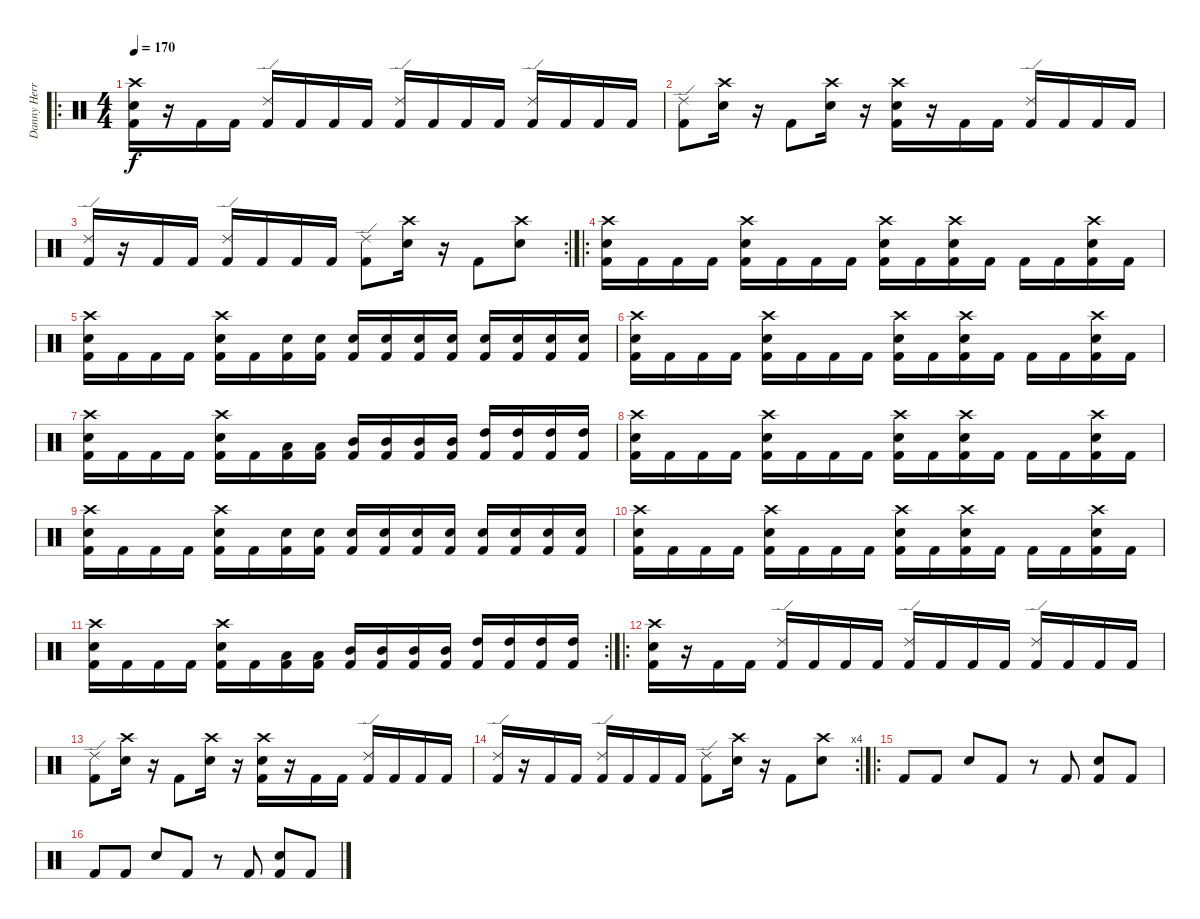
\track ("Danny Herrera" "Danny Herr") {instrument percussion}
\staff {score}
\articulation defaults
\ro
\ts (4 4)
\tempo 170
\clef neutral
\ks c
("Crash high (hit)" "Electric Snare (hit)" "Kick (hit) 2").16{dy f} r.16 "Kick (hit) 2".16 "Kick (hit) 2".16 ("Ride (edge) 2" "Kick (hit) 2").16 "Kick (hit) 2".16 "Kick (hit) 2".16 "Kick (hit) 2".16 ("Ride (edge) 2" "Kick (hit) 2").16 "Kick (hit) 2".16 "Kick (hit) 2".16 "Kick (hit) 2".16 ("Ride (edge) 2" "Kick (hit) 2").16 "Kick (hit) 2".16 "Kick (hit) 2".16 "Kick (hit) 2".16 |
("Ride (edge) 2" "Kick (hit) 2").8 ("Crash high (hit)" "Electric Snare (hit)").16 r.16 "Kick (hit) 2".8 ("Crash high (hit)" "Electric Snare (hit)").16 r.16 ("Crash high (hit)" "Electric Snare (hit)" "Kick (hit) 2").16 r.16 "Kick (hit) 2".16 "Kick (hit) 2".16 ("Ride (edge) 2" "Kick (hit) 2").16 "Kick (hit) 2".16 "Kick (hit) 2".16 "Kick (hit) 2".16 |
\rc 2
("Ride (edge) 2" "Kick (hit) 2").16 r.16 "Kick (hit) 2".16 "Kick (hit) 2".16 ("Ride (edge) 2" "Kick (hit) 2").16 "Kick (hit) 2".16 "Kick (hit) 2".16 "Kick (hit) 2".16 ("Ride (edge) 2" "Kick (hit) 2").8 ("Crash high (hit)" "Electric Snare (hit)").16 r.16 "Kick (hit) 2".8 ("Crash high (hit)" "Electric Snare (hit)").8 |
\ro
("Crash high (hit)" "Electric Snare (hit)" "Kick (hit) 2").16 "Kick (hit) 2".16 "Kick (hit) 2".16 "Kick (hit) 2".16 ("Crash high (hit)" "Electric Snare (hit)" "Kick (hit) 2").16 "Kick (hit) 2".16 "Kick (hit) 2".16 "Kick (hit) 2".16 ("Crash high (hit)" "Electric Snare (hit)" "Kick (hit) 2").16 "Kick (hit) 2".16 ("Crash high (hit)" "Electric Snare (hit)" "Kick (hit) 2").16 "Kick (hit) 2".16 "Kick (hit) 2".16 "Kick (hit) 2".16 ("Crash high (hit)" "Electric Snare (hit)" "Kick (hit) 2").16 "Kick (hit) 2".16 |
("Crash high (hit)" "Electric Snare (hit)" "Kick (hit) 2").16 "Kick (hit) 2".16 "Kick (hit) 2".16 "Kick (hit) 2".16 ("Crash high (hit)" "Electric Snare (hit)" "Kick (hit) 2").16 "Kick (hit) 2".16 ("Electric Snare (hit)" "Kick (hit) 2").16 ("Electric Snare (hit)" "Kick (hit) 2").16 ("Snare (hit) 2" "Kick (hit) 2").16 ("Snare (hit) 2" "Kick (hit) 2").16 ("Snare (hit) 2" "Kick (hit) 2").16 ("Snare (hit) 2" "Kick (hit) 2").16 ("Electric Snare (hit)" "Kick (hit) 2").16 ("Electric Snare (hit)" "Kick (hit) 2").16 ("Electric Snare (hit)" "Kick (hit) 2").16 ("Electric Snare (hit)" "Kick (hit) 2").16 |
("Crash high (hit)" "Electric Snare (hit)" "Kick (hit) 2").16 "Kick (hit) 2".16 "Kick (hit) 2".16 "Kick (hit) 2".16 ("Crash high (hit)" "Electric Snare (hit)" "Kick (hit) 2").16 "Kick (hit) 2".16 "Kick (hit) 2".16 "Kick (hit) 2".16 ("Crash high (hit)" "Electric Snare (hit)" "Kick (hit) 2").16 "Kick (hit) 2".16 ("Crash high (hit)" "Electric Snare (hit)" "Kick (hit) 2").16 "Kick (hit) 2".16 "Kick (hit) 2".16 "Kick (hit) 2".16 ("Crash high (hit)" "Electric Snare (hit)" "Kick (hit) 2").16 "Kick (hit) 2".16 |
("Crash high (hit)" "Electric Snare (hit)" "Kick (hit) 2").16 "Kick (hit) 2".16 "Kick (hit) 2".16 "Kick (hit) 2".16 ("Crash high (hit)" "Electric Snare (hit)" "Kick (hit) 2").16 "Kick (hit) 2".16 ("Low Tom (hit)" "Kick (hit) 2").16 ("Low Tom (hit)" "Kick (hit) 2").16 ("Mid Tom (hit)" "Kick (hit) 2").16 ("Mid Tom (hit)" "Kick (hit) 2").16 ("Mid Tom (hit)" "Kick (hit) 2").16 ("Mid Tom (hit)" "Kick (hit) 2").16 ("High Tom (hit)" "Kick (hit) 2").16 ("High Tom (hit)" "Kick (hit) 2").16 ("High Tom (hit)" "Kick (hit) 2").16 ("High Tom (hit)" "Kick (hit) 2").16 |
("Crash high (hit)" "Electric Snare (hit)" "Kick (hit) 2").16 "Kick (hit) 2".16 "Kick (hit) 2".16 "Kick (hit) 2".16 ("Crash high (hit)" "Electric Snare (hit)" "Kick (hit) 2").16 "Kick (hit) 2".16 "Kick (hit) 2".16 "Kick (hit) 2".16 ("Crash high (hit)" "Electric Snare (hit)" "Kick (hit) 2").16 "Kick (hit) 2".16 ("Crash high (hit)" "Electric Snare (hit)" "Kick (hit) 2").16 "Kick (hit) 2".16 "Kick (hit) 2".16 "Kick (hit) 2".16 ("Crash high (hit)" "Electric Snare (hit)" "Kick (hit) 2").16 "Kick (hit) 2".16 |
("Crash high (hit)" "Electric Snare (hit)" "Kick (hit) 2").16 "Kick (hit) 2".16 "Kick (hit) 2".16 "Kick (hit) 2".16 ("Crash high (hit)" "Electric Snare (hit)" "Kick (hit) 2").16 "Kick (hit) 2".16 ("Electric Snare (hit)" "Kick (hit) 2").16 ("Electric Snare (hit)" "Kick (hit) 2").16 ("Snare (hit) 2" "Kick (hit) 2").16 ("Snare (hit) 2" "Kick (hit) 2").16 ("Snare (hit) 2" "Kick (hit) 2").16 ("Snare (hit) 2" "Kick (hit) 2").16 ("Electric Snare (hit)" "Kick (hit) 2").16 ("Electric Snare (hit)" "Kick (hit) 2").16 ("Electric Snare (hit)" "Kick (hit) 2").16 ("Electric Snare (hit)" "Kick (hit) 2").16 |
("Crash high (hit)" "Electric Snare (hit)" "Kick (hit) 2").16 "Kick (hit) 2".16 "Kick (hit) 2".16 "Kick (hit) 2".16 ("Crash high (hit)" "Electric Snare (hit)" "Kick (hit) 2").16 "Kick (hit) 2".16 "Kick (hit) 2".16 "Kick (hit) 2".16 ("Crash high (hit)" "Electric Snare (hit)" "Kick (hit) 2").16 "Kick (hit) 2".16 ("Crash high (hit)" "Electric Snare (hit)" "Kick (hit) 2").16 "Kick (hit) 2".16 "Kick (hit) 2".16 "Kick (hit) 2".16 ("Crash high (hit)" "Electric Snare (hit)" "Kick (hit) 2").16 "Kick (hit) 2".16 |
\rc 2
("Crash high (hit)" "Electric Snare (hit)" "Kick (hit) 2").16 "Kick (hit) 2".16 "Kick (hit) 2".16 "Kick (hit) 2".16 ("Crash high (hit)" "Electric Snare (hit)" "Kick (hit) 2").16 "Kick (hit) 2".16 ("Low Tom (hit)" "Kick (hit) 2").16 ("Low Tom (hit)" "Kick (hit) 2").16 ("Mid Tom (hit)" "Kick (hit) 2").16 ("Mid Tom (hit)" "Kick (hit) 2").16 ("Mid Tom (hit)" "Kick (hit) 2").16 ("Mid Tom (hit)" "Kick (hit) 2").16 ("High Tom (hit)" "Kick (hit) 2").16 ("High Tom (hit)" "Kick (hit) 2").16 ("High Tom (hit)" "Kick (hit) 2").16 ("High Tom (hit)" "Kick (hit) 2").16 |
\ro
("Crash high (hit)" "Electric Snare (hit)" "Kick (hit) 2").16 r.16 "Kick (hit) 2".16 "Kick (hit) 2".16 ("Ride (edge) 2" "Kick (hit) 2").16 "Kick (hit) 2".16 "Kick (hit) 2".16 "Kick (hit) 2".16 ("Ride (edge) 2" "Kick (hit) 2").16 "Kick (hit) 2".16 "Kick (hit) 2".16 "Kick (hit) 2".16 ("Ride (edge) 2" "Kick (hit) 2").16 "Kick (hit) 2".16 "Kick (hit) 2".16 "Kick (hit) 2".16 |
("Ride (edge) 2" "Kick (hit) 2").8 ("Crash high (hit)" "Electric Snare (hit)").16 r.16 "Kick (hit) 2".8 ("Crash high (hit)" "Electric Snare (hit)").16 r.16 ("Crash high (hit)" "Electric Snare (hit)" "Kick (hit) 2").16 r.16 "Kick (hit) 2".16 "Kick (hit) 2".16 ("Ride (edge) 2" "Kick (hit) 2").16 "Kick (hit) 2".16 "Kick (hit) 2".16 "Kick (hit) 2".16 |
\rc 4
("Ride (edge) 2" "Kick (hit) 2").16 r.16 "Kick (hit) 2".16 "Kick (hit) 2".16 ("Ride (edge) 2" "Kick (hit) 2").16 "Kick (hit) 2".16 "Kick (hit) 2".16 "Kick (hit) 2".16 ("Ride (edge) 2" "Kick (hit) 2").8 ("Crash high (hit)" "Electric Snare (hit)").16 r.16 "Kick (hit) 2".8 ("Crash high (hit)" "Electric Snare (hit)").8 |
\ro "Kick (hit) 2".8 "Kick (hit) 2".8 "Electric Snare (hit)".8 "Kick (hit) 2".8
r.8 "Kick (hit) 2".8 ("Electric Snare (hit)" "Kick (hit) 2").8 "Kick (hit) 2".8 |
"Kick (hit) 2".8 "Kick (hit) 2".8 "Electric Snare (hit)".8 "Kick (hit) 2".8 r.8 "Kick (hit) 2".8 ("Electric Snare (hit)" "Kick (hit) 2").8 "Kick (hit) 2".8
